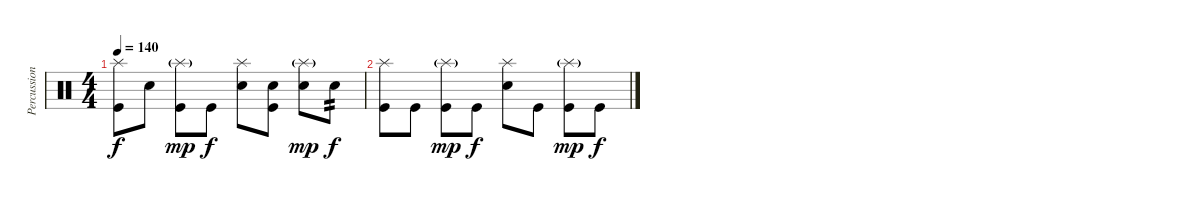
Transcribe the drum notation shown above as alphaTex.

\track ("Percussion" "Percussion") {instrument percussion}
\staff {score}
\articulation defaults
\ts (4 4)
\tempo 140
\clef neutral
\ks c
("Splash (hit)" "Kick (hit)").8{dy f} "Snare (hit) 2".8 ("Splash (hit)"{g} "Kick (hit)").8{dy mp} "Kick (hit)".8{dy f} ("Splash (hit)" "Snare (hit) 2").8 ("Snare (hit) 2" "Kick (hit)").8 ("Splash (hit)"{g} "Snare (hit) 2").8{dy mp} "Snare (hit) 2".8{tp 2 dy f} |
("Splash (hit)" "Kick (hit)").8 "Kick (hit)".8 ("Splash (hit)"{g} "Kick (hit)").8{dy mp} "Kick (hit)".8{dy f} ("Splash (hit)" "Snare (hit) 2").8 "Kick (hit)".8 ("Splash (hit)"{g} "Kick (hit)").8{dy mp} "Kick (hit)".8{dy f}
